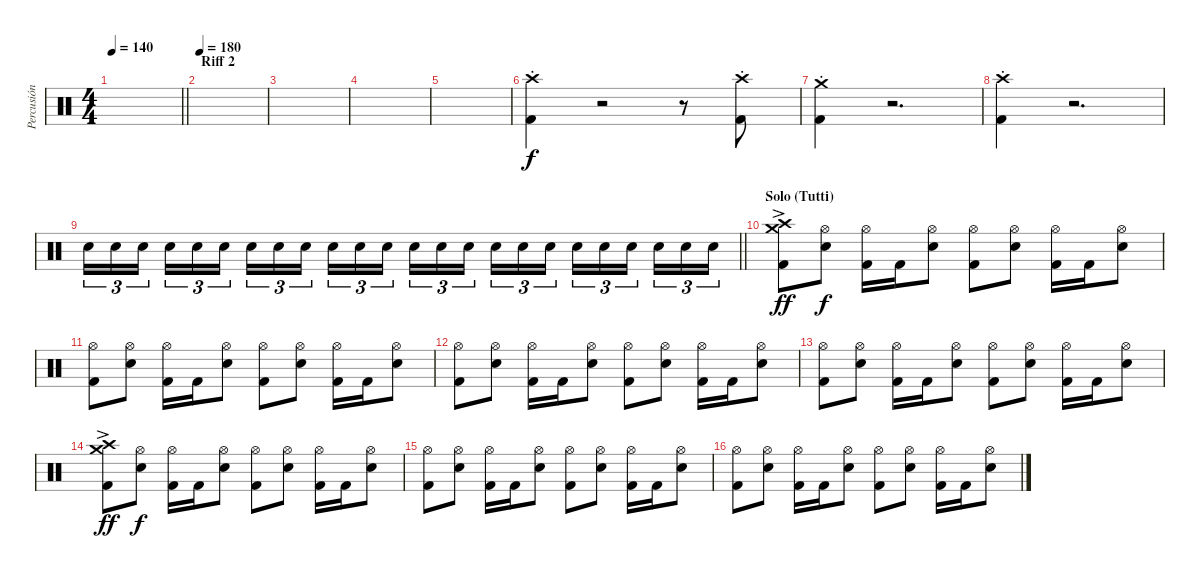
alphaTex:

\track ("Percusión" "Percusión") {instrument percussion}
\staff {score}
\articulation defaults
\ts (4 4)
\tempo 140
\clef neutral
\barLineRight lightlight
\ks c
|
\section ("" "Riff 2")
\tempo 180
|
|
|
|
("Crash high (hit)"{st} "Kick (hit) 2"{st}).4 r.2 r.8 ("Crash high (hit)"{st} "Kick (hit) 2"{st}).8 |
("Crash medium (hit)"{st} "Kick (hit) 2"{st}).4 r.2{d} |
("Crash high (hit)"{st} "Kick (hit) 2"{st}).4 r.2{d} |
\barLineRight lightlight "Snare (hit) 2".16{tu (3 2)} "Snare (hit) 2".16{tu (3 2)} "Snare (hit) 2".16{tu (3 2) beam splitsecondary} "Snare (hit) 2".16{tu (3 2)} "Snare (hit) 2".16{tu (3 2)} "Snare (hit) 2".16{tu (3 2)} "Snare (hit) 2".16{tu (3 2)} "Snare (hit) 2".16{tu (3 2)} "Snare (hit) 2".16{tu (3 2) beam splitsecondary} "Snare (hit) 2".16{tu (3 2)} "Snare (hit) 2".16{tu (3 2)} "Snare (hit) 2".16{tu (3 2)} "Snare (hit) 2".16{tu (3 2)} "Snare (hit) 2".16{tu (3 2)} "Snare (hit) 2".16{tu (3 2) beam splitsecondary} "Snare (hit) 2".16{tu (3 2)} "Snare (hit) 2".16{tu (3 2)} "Snare (hit) 2".16{tu (3 2)} "Snare (hit) 2".16{tu (3 2)} "Snare (hit) 2".16{tu (3 2)} "Snare (hit) 2".16{tu (3 2) beam splitsecondary} "Snare (hit) 2".16{tu (3 2)} "Snare (hit) 2".16{tu (3 2)} "Snare (hit) 2".16{tu (3 2)}
|
\section ("" "Solo (Tutti) ")
("Crash medium (hit)"{ac} "Crash high (hit)" "Kick (hit) 2").8{dy ff} ("Hi-Hat (open)" "Snare (hit) 2").8{dy f} ("Hi-Hat (open)" "Kick (hit) 2").16 "Kick (hit) 2".16 ("Hi-Hat (open)" "Snare (hit) 2").8 ("Hi-Hat (open)" "Kick (hit) 2").8 ("Hi-Hat (open)" "Snare (hit) 2").8 ("Hi-Hat (open)" "Kick (hit) 2").16 "Kick (hit) 2".16 ("Hi-Hat (open)" "Snare (hit) 2").8 |
("Hi-Hat (open)" "Kick (hit) 2").8 ("Hi-Hat (open)" "Snare (hit) 2").8 ("Hi-Hat (open)" "Kick (hit) 2").16 "Kick (hit) 2".16 ("Hi-Hat (open)" "Snare (hit) 2").8 ("Hi-Hat (open)" "Kick (hit) 2").8 ("Hi-Hat (open)" "Snare (hit) 2").8 ("Hi-Hat (open)" "Kick (hit) 2").16 "Kick (hit) 2".16 ("Hi-Hat (open)" "Snare (hit) 2").8 |
("Hi-Hat (open)" "Kick (hit) 2").8 ("Hi-Hat (open)" "Snare (hit) 2").8 ("Hi-Hat (open)" "Kick (hit) 2").16 "Kick (hit) 2".16 ("Hi-Hat (open)" "Snare (hit) 2").8 ("Hi-Hat (open)" "Kick (hit) 2").8 ("Hi-Hat (open)" "Snare (hit) 2").8 ("Hi-Hat (open)" "Kick (hit) 2").16 "Kick (hit) 2".16 ("Hi-Hat (open)" "Snare (hit) 2").8 |
("Hi-Hat (open)" "Kick (hit) 2").8 ("Hi-Hat (open)" "Snare (hit) 2").8 ("Hi-Hat (open)" "Kick (hit) 2").16 "Kick (hit) 2".16 ("Hi-Hat (open)" "Snare (hit) 2").8 ("Hi-Hat (open)" "Kick (hit) 2").8 ("Hi-Hat (open)" "Snare (hit) 2").8 ("Hi-Hat (open)" "Kick (hit) 2").16 "Kick (hit) 2".16 ("Hi-Hat (open)" "Snare (hit) 2").8 |
("Crash medium (hit)"{ac} "Crash high (hit)" "Kick (hit) 2").8{dy ff} ("Hi-Hat (open)" "Snare (hit) 2").8{dy f} ("Hi-Hat (open)" "Kick (hit) 2").16 "Kick (hit) 2".16 ("Hi-Hat (open)" "Snare (hit) 2").8 ("Hi-Hat (open)" "Kick (hit) 2").8 ("Hi-Hat (open)" "Snare (hit) 2").8 ("Hi-Hat (open)" "Kick (hit) 2").16 "Kick (hit) 2".16 ("Hi-Hat (open)" "Snare (hit) 2").8 |
("Hi-Hat (open)" "Kick (hit) 2").8 ("Hi-Hat (open)" "Snare (hit) 2").8 ("Hi-Hat (open)" "Kick (hit) 2").16 "Kick (hit) 2".16 ("Hi-Hat (open)" "Snare (hit) 2").8 ("Hi-Hat (open)" "Kick (hit) 2").8 ("Hi-Hat (open)" "Snare (hit) 2").8 ("Hi-Hat (open)" "Kick (hit) 2").16 "Kick (hit) 2".16 ("Hi-Hat (open)" "Snare (hit) 2").8 |
("Hi-Hat (open)" "Kick (hit) 2").8 ("Hi-Hat (open)" "Snare (hit) 2").8 ("Hi-Hat (open)" "Kick (hit) 2").16 "Kick (hit) 2".16 ("Hi-Hat (open)" "Snare (hit) 2").8 ("Hi-Hat (open)" "Kick (hit) 2").8 ("Hi-Hat (open)" "Snare (hit) 2").8 ("Hi-Hat (open)" "Kick (hit) 2").16 "Kick (hit) 2".16 ("Hi-Hat (open)" "Snare (hit) 2").8
